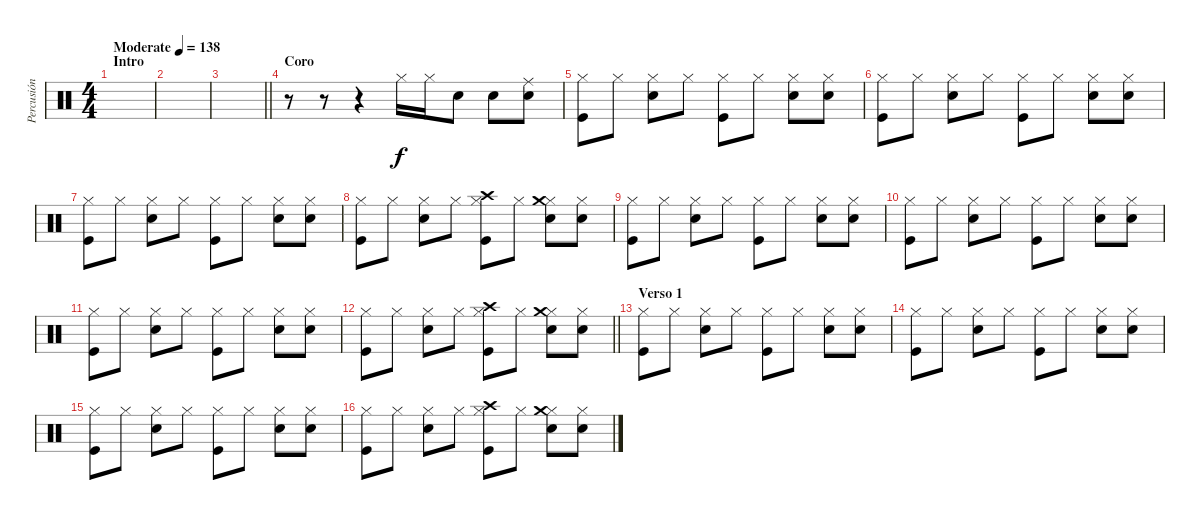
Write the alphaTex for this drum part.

\track ("Percusión" "Percusión") {instrument percussion}
\staff {score}
\articulation defaults
\ts (4 4)
\section ("" "Intro")
\tempo (138 "Moderate")
\clef neutral
\ks c
|
|
\barLineRight lightlight
|
\section ("" "Coro")
r.8 r.8 r.4 "Hi-Hat (closed)".16 "Hi-Hat (closed)".16 "Snare (hit) 2".8 "Snare (hit) 2".8 ("Ride (middle)" "Snare (hit) 2").8 |
("Hi-Hat (closed)" "Kick (hit)").8 "Hi-Hat (closed)".8 ("Hi-Hat (closed)" "Snare (hit) 2").8 "Hi-Hat (closed)".8 ("Hi-Hat (closed)" "Kick (hit)").8 "Hi-Hat (closed)".8 ("Hi-Hat (closed)" "Snare (hit) 2").8 ("Hi-Hat (closed)" "Snare (hit) 2").8 |
("Hi-Hat (closed)" "Kick (hit)").8 "Hi-Hat (closed)".8 ("Hi-Hat (closed)" "Snare (hit) 2").8 "Hi-Hat (closed)".8 ("Hi-Hat (closed)" "Kick (hit)").8 "Hi-Hat (closed)".8 ("Hi-Hat (closed)" "Snare (hit) 2").8 ("Hi-Hat (closed)" "Snare (hit) 2").8 |
("Hi-Hat (closed)" "Kick (hit)").8 "Hi-Hat (closed)".8 ("Hi-Hat (closed)" "Snare (hit) 2").8 "Hi-Hat (closed)".8 ("Hi-Hat (closed)" "Kick (hit)").8 "Hi-Hat (closed)".8 ("Hi-Hat (closed)" "Snare (hit) 2").8 ("Hi-Hat (closed)" "Snare (hit) 2").8 |
("Hi-Hat (closed)" "Kick (hit)").8 "Hi-Hat (closed)".8 ("Hi-Hat (closed)" "Snare (hit) 2").8 "Hi-Hat (closed)".8 ("Hi-Hat (closed)" "Kick (hit)" "Crash high (hit)").8 "Hi-Hat (closed)".8 ("Hi-Hat (closed)" "Snare (hit) 2" "Crash medium (hit)").8 ("Hi-Hat (closed)" "Snare (hit) 2").8 |
("Hi-Hat (closed)" "Kick (hit)").8 "Hi-Hat (closed)".8 ("Hi-Hat (closed)" "Snare (hit) 2").8 "Hi-Hat (closed)".8 ("Hi-Hat (closed)" "Kick (hit)").8 "Hi-Hat (closed)".8 ("Hi-Hat (closed)" "Snare (hit) 2").8 ("Hi-Hat (closed)" "Snare (hit) 2").8 |
("Hi-Hat (closed)" "Kick (hit)").8 "Hi-Hat (closed)".8 ("Hi-Hat (closed)" "Snare (hit) 2").8 "Hi-Hat (closed)".8 ("Hi-Hat (closed)" "Kick (hit)").8 "Hi-Hat (closed)".8 ("Hi-Hat (closed)" "Snare (hit) 2").8 ("Hi-Hat (closed)" "Snare (hit) 2").8 |
("Hi-Hat (closed)" "Kick (hit)").8 "Hi-Hat (closed)".8 ("Hi-Hat (closed)" "Snare (hit) 2").8 "Hi-Hat (closed)".8 ("Hi-Hat (closed)" "Kick (hit)").8 "Hi-Hat (closed)".8 ("Hi-Hat (closed)" "Snare (hit) 2").8 ("Hi-Hat (closed)" "Snare (hit) 2").8 |
\barLineRight lightlight
("Hi-Hat (closed)" "Kick (hit)").8 "Hi-Hat (closed)".8 ("Hi-Hat (closed)" "Snare (hit) 2").8 "Hi-Hat (closed)".8 ("Hi-Hat (closed)" "Kick (hit)" "Crash high (hit)").8 "Hi-Hat (closed)".8 ("Hi-Hat (closed)" "Snare (hit) 2" "Crash medium (hit)").8 ("Hi-Hat (closed)" "Snare (hit) 2").8 |
\section ("" "Verso 1")
("Hi-Hat (closed)" "Kick (hit)").8 "Hi-Hat (closed)".8 ("Hi-Hat (closed)" "Snare (hit) 2").8 "Hi-Hat (closed)".8 ("Hi-Hat (closed)" "Kick (hit)").8 "Hi-Hat (closed)".8 ("Hi-Hat (closed)" "Snare (hit) 2").8 ("Hi-Hat (closed)" "Snare (hit) 2").8 |
("Hi-Hat (closed)" "Kick (hit)").8 "Hi-Hat (closed)".8 ("Hi-Hat (closed)" "Snare (hit) 2").8 "Hi-Hat (closed)".8 ("Hi-Hat (closed)" "Kick (hit)").8 "Hi-Hat (closed)".8 ("Hi-Hat (closed)" "Snare (hit) 2").8 ("Hi-Hat (closed)" "Snare (hit) 2").8 |
("Hi-Hat (closed)" "Kick (hit)").8 "Hi-Hat (closed)".8 ("Hi-Hat (closed)" "Snare (hit) 2").8 "Hi-Hat (closed)".8 ("Hi-Hat (closed)" "Kick (hit)").8 "Hi-Hat (closed)".8 ("Hi-Hat (closed)" "Snare (hit) 2").8 ("Hi-Hat (closed)" "Snare (hit) 2").8 |
("Hi-Hat (closed)" "Kick (hit)").8 "Hi-Hat (closed)".8 ("Hi-Hat (closed)" "Snare (hit) 2").8 "Hi-Hat (closed)".8 ("Hi-Hat (closed)" "Kick (hit)" "Crash high (hit)").8 "Hi-Hat (closed)".8 ("Hi-Hat (closed)" "Snare (hit) 2" "Crash medium (hit)").8 ("Hi-Hat (closed)" "Snare (hit) 2").8
